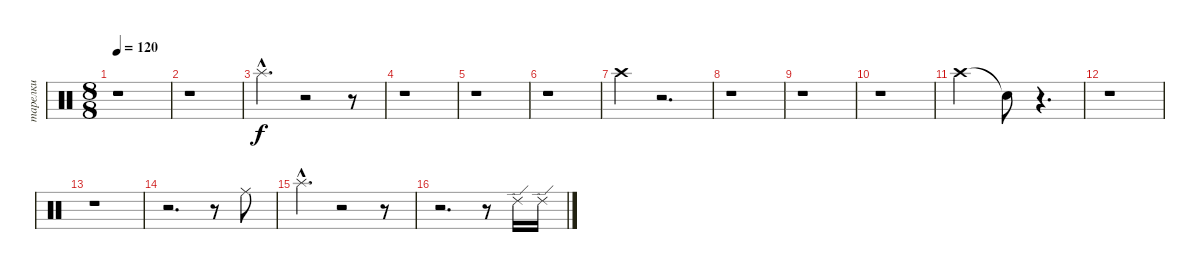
\track ("тарелки" "тарелки") {instrument percussion}
\staff {score}
\articulation defaults
\ts (8 8)
\tempo 120
\clef neutral
\ks c
r.1{dy f} |
r.1 |
"Splash (hit)"{hac}.4{d} r.2 r.8 |
r.1 |
r.1 |
r.1 |
"Crash high (hit)".4 r.2{d} |
r.1 |
r.1 |
r.1 |
"Crash high (hit)".2 "Snare (hit)"{t}.8 r.4{d} |
r.1 |
r.1 |
r.2{d} r.8 "Ride (middle)".8 |
"Splash (hit)"{hac}.4{d} r.2 r.8 |
r.2{d} r.8 "Ride (edge) 2".16 "Ride (edge) 2".16
